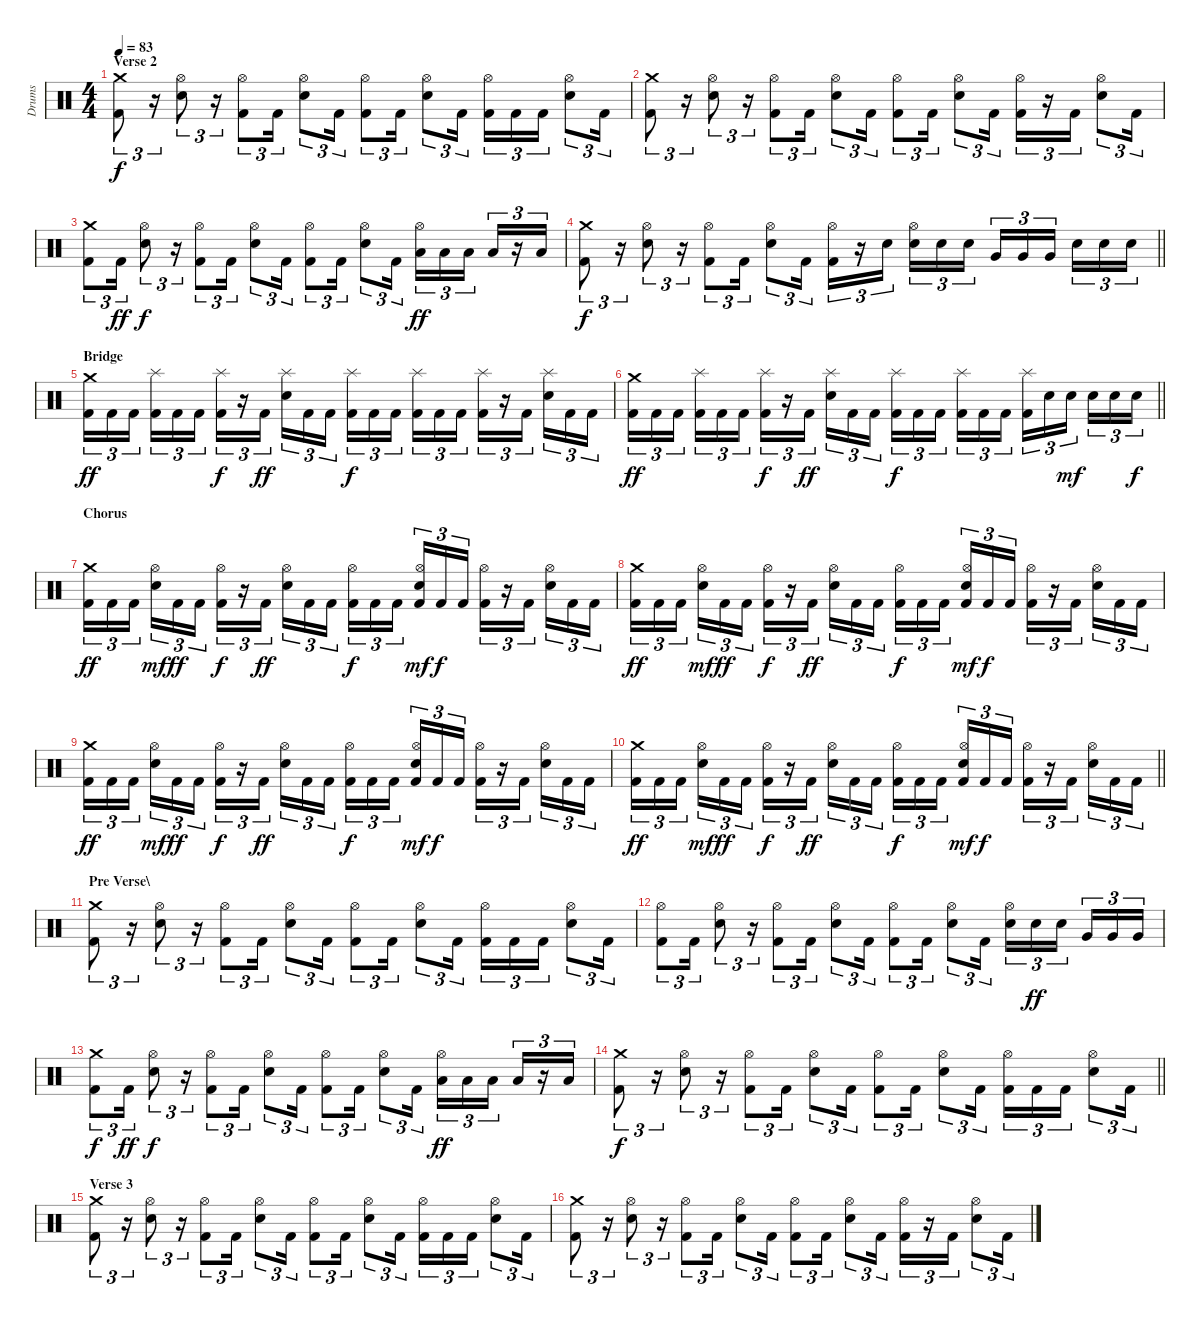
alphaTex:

\track ("Drums " "Drums ") {instrument percussion}
\staff {score}
\articulation defaults
\ts (4 4)
\section ("" "Verse 2")
\tempo 83
\clef neutral
\ks c
("Crash medium (hit)" "Kick (hit) 2").8{tu (3 2) dy f} r.16{tu (3 2)} ("Hi-Hat (open)" "Snare (hit) 2").8{tu (3 2)} r.16{tu (3 2)} ("Hi-Hat (open)" "Kick (hit) 2").8{tu (3 2)} "Kick (hit) 2".16{tu (3 2)} ("Hi-Hat (open)" "Snare (hit) 2").8{tu (3 2)} "Kick (hit) 2".16{tu (3 2)} ("Hi-Hat (open)" "Kick (hit) 2").8{tu (3 2)} "Kick (hit) 2".16{tu (3 2)} ("Hi-Hat (open)" "Snare (hit) 2").8{tu (3 2)} "Kick (hit) 2".16{tu (3 2)} ("Hi-Hat (open)" "Kick (hit) 2").16{tu (3 2)} "Kick (hit) 2".16{tu (3 2)} "Kick (hit) 2".16{tu (3 2)} ("Hi-Hat (open)" "Snare (hit) 2").8{tu (3 2)} "Kick (hit) 2".16{tu (3 2)} |
("Crash medium (hit)" "Kick (hit) 2").8{tu (3 2)} r.16{tu (3 2)} ("Hi-Hat (open)" "Snare (hit) 2").8{tu (3 2)} r.16{tu (3 2)} ("Hi-Hat (open)" "Kick (hit) 2").8{tu (3 2)} "Kick (hit) 2".16{tu (3 2)} ("Hi-Hat (open)" "Snare (hit) 2").8{tu (3 2)} "Kick (hit) 2".16{tu (3 2)} ("Hi-Hat (open)" "Kick (hit) 2").8{tu (3 2)} "Kick (hit) 2".16{tu (3 2)} ("Hi-Hat (open)" "Snare (hit) 2").8{tu (3 2)} "Kick (hit) 2".16{tu (3 2)} ("Hi-Hat (open)" "Kick (hit) 2").16{tu (3 2)} r.16{tu (3 2)} "Kick (hit) 2".16{tu (3 2)} ("Hi-Hat (open)" "Snare (hit) 2").8{tu (3 2)} "Kick (hit) 2".16{tu (3 2)} |
("Crash medium (hit)" "Kick (hit) 2").8{tu (3 2)} "Kick (hit) 2".16{tu (3 2) dy ff} ("Hi-Hat (open)" "Snare (hit) 2").8{tu (3 2) dy f} r.16{tu (3 2)} ("Hi-Hat (open)" "Kick (hit) 2").8{tu (3 2)} "Kick (hit) 2".16{tu (3 2)} ("Hi-Hat (open)" "Snare (hit) 2").8{tu (3 2)} "Kick (hit) 2".16{tu (3 2)} ("Hi-Hat (open)" "Kick (hit) 2").8{tu (3 2)} "Kick (hit) 2".16{tu (3 2)} ("Hi-Hat (open)" "Snare (hit) 2").8{tu (3 2)} "Kick (hit) 2".16{tu (3 2)} ("Hi-Hat (open)" "Low Tom (hit)").16{tu (3 2) dy ff} "Low Tom (hit)".16{tu (3 2)} "Low Tom (hit)".16{tu (3 2) beam splitsecondary} "Low Floor Tom (hit)".16{tu (3 2)} r.16{tu (3 2)} "Low Floor Tom (hit)".16{tu (3 2)} |
\barLineRight lightlight
("Crash medium (hit)" "Kick (hit) 2").8{tu (3 2) dy f} r.16{tu (3 2)} ("Hi-Hat (open)" "Snare (hit) 2").8{tu (3 2)} r.16{tu (3 2)} ("Hi-Hat (open)" "Kick (hit) 2").8{tu (3 2)} "Kick (hit) 2".16{tu (3 2)} ("Hi-Hat (open)" "Snare (hit) 2").8{tu (3 2)} "Kick (hit) 2".16{tu (3 2)} ("Hi-Hat (open)" "Kick (hit) 2").16{tu (3 2)} r.16{tu (3 2)} "Snare (hit) 2".16{tu (3 2) beam splitsecondary} ("Hi-Hat (open)" "Snare (hit) 2").16{tu (3 2)} "Snare (hit) 2".16{tu (3 2)} "Snare (hit) 2".16{tu (3 2)} "Very Low Tom (hit)".16{tu (3 2)} "Very Low Tom (hit)".16{tu (3 2)} "Very Low Tom (hit)".16{tu (3 2) beam splitsecondary} "Snare (hit) 2".16{tu (3 2)} "Snare (hit) 2".16{tu (3 2)} "Snare (hit) 2".16{tu (3 2)} |
\section ("" "Bridge")
("Crash medium (hit)" "Kick (hit) 2").16{tu (3 2) dy ff} "Kick (hit) 2".16{tu (3 2)} "Kick (hit) 2".16{tu (3 2) beam splitsecondary} ("Splash (hit)" "Kick (hit) 2").16{tu (3 2)} "Kick (hit) 2".16{tu (3 2)} "Kick (hit) 2".16{tu (3 2)} ("Splash (hit)" "Kick (hit) 2").16{tu (3 2) dy f} r.16{tu (3 2)} "Kick (hit) 2".16{tu (3 2) dy ff beam splitsecondary} ("Splash (hit)" "Snare (hit) 2").16{tu (3 2)} "Kick (hit) 2".16{tu (3 2)} "Kick (hit) 2".16{tu (3 2)} ("Splash (hit)" "Kick (hit) 2").16{tu (3 2) dy f} "Kick (hit) 2".16{tu (3 2)} "Kick (hit) 2".16{tu (3 2) beam splitsecondary} ("Splash (hit)" "Kick (hit) 2").16{tu (3 2)} "Kick (hit) 2".16{tu (3 2)} "Kick (hit) 2".16{tu (3 2)} ("Splash (hit)" "Kick (hit) 2").16{tu (3 2)} r.16{tu (3 2)} "Kick (hit) 2".16{tu (3 2) beam splitsecondary} ("Splash (hit)" "Snare (hit) 2").16{tu (3 2)} "Kick (hit) 2".16{tu (3 2)} "Kick (hit) 2".16{tu (3 2)} |
\barLineRight lightlight
("Crash medium (hit)" "Kick (hit) 2").16{tu (3 2) dy ff} "Kick (hit) 2".16{tu (3 2)} "Kick (hit) 2".16{tu (3 2) beam splitsecondary} ("Splash (hit)" "Kick (hit) 2").16{tu (3 2)} "Kick (hit) 2".16{tu (3 2)} "Kick (hit) 2".16{tu (3 2)} ("Splash (hit)" "Kick (hit) 2").16{tu (3 2) dy f} r.16{tu (3 2)} "Kick (hit) 2".16{tu (3 2) dy ff beam splitsecondary} ("Splash (hit)" "Snare (hit) 2").16{tu (3 2)} "Kick (hit) 2".16{tu (3 2)} "Kick (hit) 2".16{tu (3 2)} ("Splash (hit)" "Kick (hit) 2").16{tu (3 2) dy f} "Kick (hit) 2".16{tu (3 2)} "Kick (hit) 2".16{tu (3 2) beam splitsecondary} ("Splash (hit)" "Kick (hit) 2").16{tu (3 2)} "Kick (hit) 2".16{tu (3 2)} "Kick (hit) 2".16{tu (3 2)} ("Splash (hit)" "Kick (hit) 2").16{tu (3 2)} "Snare (hit) 2".16{tu (3 2)} "Snare (hit) 2".16{tu (3 2) dy mf beam splitsecondary} "Snare (hit) 2".16{tu (3 2)} "Snare (hit) 2".16{tu (3 2)} "Snare (hit) 2".16{tu (3 2) dy f} |
\section ("" "Chorus")
("Crash medium (hit)" "Kick (hit) 2").16{tu (3 2) dy ff} "Kick (hit) 2".16{tu (3 2)} "Kick (hit) 2".16{tu (3 2) beam splitsecondary} ("Hi-Hat (open)" "Snare (hit) 2").16{tu (3 2) dy mf} "Kick (hit) 2".16{tu (3 2) dy ff} "Kick (hit) 2".16{tu (3 2)} ("Hi-Hat (open)" "Kick (hit) 2").16{tu (3 2) dy f} r.16{tu (3 2)} "Kick (hit) 2".16{tu (3 2) dy ff beam splitsecondary} ("Hi-Hat (open)" "Snare (hit) 2").16{tu (3 2)} "Kick (hit) 2".16{tu (3 2)} "Kick (hit) 2".16{tu (3 2)} ("Hi-Hat (open)" "Kick (hit) 2").16{tu (3 2) dy f} "Kick (hit) 2".16{tu (3 2)} "Kick (hit) 2".16{tu (3 2) beam splitsecondary} ("Hi-Hat (open)" "Snare (hit) 2" "Kick (hit) 2").16{tu (3 2) dy mf} "Kick (hit) 2".16{tu (3 2) dy f} "Kick (hit) 2".16{tu (3 2)} ("Hi-Hat (open)" "Kick (hit) 2").16{tu (3 2)} r.16{tu (3 2)} "Kick (hit) 2".16{tu (3 2) beam splitsecondary} ("Hi-Hat (open)" "Snare (hit) 2").16{tu (3 2)} "Kick (hit) 2".16{tu (3 2)} "Kick (hit) 2".16{tu (3 2)} |
("Crash medium (hit)" "Kick (hit) 2").16{tu (3 2) dy ff} "Kick (hit) 2".16{tu (3 2)} "Kick (hit) 2".16{tu (3 2) beam splitsecondary} ("Hi-Hat (open)" "Snare (hit) 2").16{tu (3 2) dy mf} "Kick (hit) 2".16{tu (3 2) dy ff} "Kick (hit) 2".16{tu (3 2)} ("Hi-Hat (open)" "Kick (hit) 2").16{tu (3 2) dy f} r.16{tu (3 2)} "Kick (hit) 2".16{tu (3 2) dy ff beam splitsecondary} ("Hi-Hat (open)" "Snare (hit) 2").16{tu (3 2)} "Kick (hit) 2".16{tu (3 2)} "Kick (hit) 2".16{tu (3 2)} ("Hi-Hat (open)" "Kick (hit) 2").16{tu (3 2) dy f} "Kick (hit) 2".16{tu (3 2)} "Kick (hit) 2".16{tu (3 2) beam splitsecondary} ("Hi-Hat (open)" "Snare (hit) 2" "Kick (hit) 2").16{tu (3 2) dy mf} "Kick (hit) 2".16{tu (3 2) dy f} "Kick (hit) 2".16{tu (3 2)} ("Hi-Hat (open)" "Kick (hit) 2").16{tu (3 2)} r.16{tu (3 2)} "Kick (hit) 2".16{tu (3 2) beam splitsecondary} ("Hi-Hat (open)" "Snare (hit) 2").16{tu (3 2)} "Kick (hit) 2".16{tu (3 2)} "Kick (hit) 2".16{tu (3 2)} |
("Crash medium (hit)" "Kick (hit) 2").16{tu (3 2) dy ff} "Kick (hit) 2".16{tu (3 2)} "Kick (hit) 2".16{tu (3 2) beam splitsecondary} ("Hi-Hat (open)" "Snare (hit) 2").16{tu (3 2) dy mf} "Kick (hit) 2".16{tu (3 2) dy ff} "Kick (hit) 2".16{tu (3 2)} ("Hi-Hat (open)" "Kick (hit) 2").16{tu (3 2) dy f} r.16{tu (3 2)} "Kick (hit) 2".16{tu (3 2) dy ff beam splitsecondary} ("Hi-Hat (open)" "Snare (hit) 2").16{tu (3 2)} "Kick (hit) 2".16{tu (3 2)} "Kick (hit) 2".16{tu (3 2)} ("Hi-Hat (open)" "Kick (hit) 2").16{tu (3 2) dy f} "Kick (hit) 2".16{tu (3 2)} "Kick (hit) 2".16{tu (3 2) beam splitsecondary} ("Hi-Hat (open)" "Snare (hit) 2" "Kick (hit) 2").16{tu (3 2) dy mf} "Kick (hit) 2".16{tu (3 2) dy f} "Kick (hit) 2".16{tu (3 2)} ("Hi-Hat (open)" "Kick (hit) 2").16{tu (3 2)} r.16{tu (3 2)} "Kick (hit) 2".16{tu (3 2) beam splitsecondary} ("Hi-Hat (open)" "Snare (hit) 2").16{tu (3 2)} "Kick (hit) 2".16{tu (3 2)} "Kick (hit) 2".16{tu (3 2)} |
\barLineRight lightlight
("Crash medium (hit)" "Kick (hit) 2").16{tu (3 2) dy ff} "Kick (hit) 2".16{tu (3 2)} "Kick (hit) 2".16{tu (3 2) beam splitsecondary} ("Hi-Hat (open)" "Snare (hit) 2").16{tu (3 2) dy mf} "Kick (hit) 2".16{tu (3 2) dy ff} "Kick (hit) 2".16{tu (3 2)} ("Hi-Hat (open)" "Kick (hit) 2").16{tu (3 2) dy f} r.16{tu (3 2)} "Kick (hit) 2".16{tu (3 2) dy ff beam splitsecondary} ("Hi-Hat (open)" "Snare (hit) 2").16{tu (3 2)} "Kick (hit) 2".16{tu (3 2)} "Kick (hit) 2".16{tu (3 2)} ("Hi-Hat (open)" "Kick (hit) 2").16{tu (3 2) dy f} "Kick (hit) 2".16{tu (3 2)} "Kick (hit) 2".16{tu (3 2) beam splitsecondary} ("Hi-Hat (open)" "Snare (hit) 2" "Kick (hit) 2").16{tu (3 2) dy mf} "Kick (hit) 2".16{tu (3 2) dy f} "Kick (hit) 2".16{tu (3 2)} ("Hi-Hat (open)" "Kick (hit) 2").16{tu (3 2)} r.16{tu (3 2)} "Kick (hit) 2".16{tu (3 2) beam splitsecondary} ("Hi-Hat (open)" "Snare (hit) 2").16{tu (3 2)} "Kick (hit) 2".16{tu (3 2)} "Kick (hit) 2".16{tu (3 2)} |
\section ("" "Pre Verse\\")
("Crash medium (hit)" "Kick (hit) 2").8{tu (3 2)} r.16{tu (3 2)} ("Hi-Hat (open)" "Snare (hit) 2").8{tu (3 2)} r.16{tu (3 2)} ("Hi-Hat (open)" "Kick (hit) 2").8{tu (3 2)} "Kick (hit) 2".16{tu (3 2)} ("Hi-Hat (open)" "Snare (hit) 2").8{tu (3 2)} "Kick (hit) 2".16{tu (3 2)} ("Hi-Hat (open)" "Kick (hit) 2").8{tu (3 2)} "Kick (hit) 2".16{tu (3 2)} ("Hi-Hat (open)" "Snare (hit) 2").8{tu (3 2)} "Kick (hit) 2".16{tu (3 2)} ("Hi-Hat (open)" "Kick (hit) 2").16{tu (3 2)} "Kick (hit) 2".16{tu (3 2)} "Kick (hit) 2".16{tu (3 2)} ("Hi-Hat (open)" "Snare (hit) 2").8{tu (3 2)} "Kick (hit) 2".16{tu (3 2)} |
("Hi-Hat (open)" "Kick (hit) 2").8{tu (3 2)} "Kick (hit) 2".16{tu (3 2)} ("Hi-Hat (open)" "Snare (hit) 2").8{tu (3 2)} r.16{tu (3 2)} ("Hi-Hat (open)" "Kick (hit) 2").8{tu (3 2)} "Kick (hit) 2".16{tu (3 2)} ("Hi-Hat (open)" "Snare (hit) 2").8{tu (3 2)} "Kick (hit) 2".16{tu (3 2)} ("Hi-Hat (open)" "Kick (hit) 2").8{tu (3 2)} "Kick (hit) 2".16{tu (3 2)} ("Hi-Hat (open)" "Snare (hit) 2").8{tu (3 2)} "Kick (hit) 2".16{tu (3 2)} ("Hi-Hat (open)" "Snare (hit) 2").16{tu (3 2)} "Snare (hit) 2".16{tu (3 2) dy ff} "Snare (hit) 2".16{tu (3 2) beam splitsecondary} "Very Low Tom (hit)".16{tu (3 2)} "Very Low Tom (hit)".16{tu (3 2)} "Very Low Tom (hit)".16{tu (3 2)} |
("Crash medium (hit)" "Kick (hit) 2").8{tu (3 2) dy f} "Kick (hit) 2".16{tu (3 2) dy ff} ("Hi-Hat (open)" "Snare (hit) 2").8{tu (3 2) dy f} r.16{tu (3 2)} ("Hi-Hat (open)" "Kick (hit) 2").8{tu (3 2)} "Kick (hit) 2".16{tu (3 2)} ("Hi-Hat (open)" "Snare (hit) 2").8{tu (3 2)} "Kick (hit) 2".16{tu (3 2)} ("Hi-Hat (open)" "Kick (hit) 2").8{tu (3 2)} "Kick (hit) 2".16{tu (3 2)} ("Hi-Hat (open)" "Snare (hit) 2").8{tu (3 2)} "Kick (hit) 2".16{tu (3 2)} ("Hi-Hat (open)" "Low Tom (hit)").16{tu (3 2) dy ff} "Low Tom (hit)".16{tu (3 2)} "Low Tom (hit)".16{tu (3 2) beam splitsecondary} "Low Floor Tom (hit)".16{tu (3 2)} r.16{tu (3 2)} "Low Floor Tom (hit)".16{tu (3 2)} |
\barLineRight lightlight
("Crash medium (hit)" "Kick (hit) 2").8{tu (3 2) dy f} r.16{tu (3 2)} ("Hi-Hat (open)" "Snare (hit) 2").8{tu (3 2)} r.16{tu (3 2)} ("Hi-Hat (open)" "Kick (hit) 2").8{tu (3 2)} "Kick (hit) 2".16{tu (3 2)} ("Hi-Hat (open)" "Snare (hit) 2").8{tu (3 2)} "Kick (hit) 2".16{tu (3 2)} ("Hi-Hat (open)" "Kick (hit) 2").8{tu (3 2)} "Kick (hit) 2".16{tu (3 2)} ("Hi-Hat (open)" "Snare (hit) 2").8{tu (3 2)} "Kick (hit) 2".16{tu (3 2)} ("Hi-Hat (open)" "Kick (hit) 2").16{tu (3 2)} "Kick (hit) 2".16{tu (3 2)} "Kick (hit) 2".16{tu (3 2)} ("Hi-Hat (open)" "Snare (hit) 2").8{tu (3 2)} "Kick (hit) 2".16{tu (3 2)} |
\section ("" "Verse 3")
("Crash medium (hit)" "Kick (hit) 2").8{tu (3 2)} r.16{tu (3 2)} ("Hi-Hat (open)" "Snare (hit) 2").8{tu (3 2)} r.16{tu (3 2)} ("Hi-Hat (open)" "Kick (hit) 2").8{tu (3 2)} "Kick (hit) 2".16{tu (3 2)} ("Hi-Hat (open)" "Snare (hit) 2").8{tu (3 2)} "Kick (hit) 2".16{tu (3 2)} ("Hi-Hat (open)" "Kick (hit) 2").8{tu (3 2)} "Kick (hit) 2".16{tu (3 2)} ("Hi-Hat (open)" "Snare (hit) 2").8{tu (3 2)} "Kick (hit) 2".16{tu (3 2)} ("Hi-Hat (open)" "Kick (hit) 2").16{tu (3 2)} "Kick (hit) 2".16{tu (3 2)} "Kick (hit) 2".16{tu (3 2)} ("Hi-Hat (open)" "Snare (hit) 2").8{tu (3 2)} "Kick (hit) 2".16{tu (3 2)} |
("Crash medium (hit)" "Kick (hit) 2").8{tu (3 2)} r.16{tu (3 2)} ("Hi-Hat (open)" "Snare (hit) 2").8{tu (3 2)} r.16{tu (3 2)} ("Hi-Hat (open)" "Kick (hit) 2").8{tu (3 2)} "Kick (hit) 2".16{tu (3 2)} ("Hi-Hat (open)" "Snare (hit) 2").8{tu (3 2)} "Kick (hit) 2".16{tu (3 2)} ("Hi-Hat (open)" "Kick (hit) 2").8{tu (3 2)} "Kick (hit) 2".16{tu (3 2)} ("Hi-Hat (open)" "Snare (hit) 2").8{tu (3 2)} "Kick (hit) 2".16{tu (3 2)} ("Hi-Hat (open)" "Kick (hit) 2").16{tu (3 2)} r.16{tu (3 2)} "Kick (hit) 2".16{tu (3 2)} ("Hi-Hat (open)" "Snare (hit) 2").8{tu (3 2)} "Kick (hit) 2".16{tu (3 2)}
